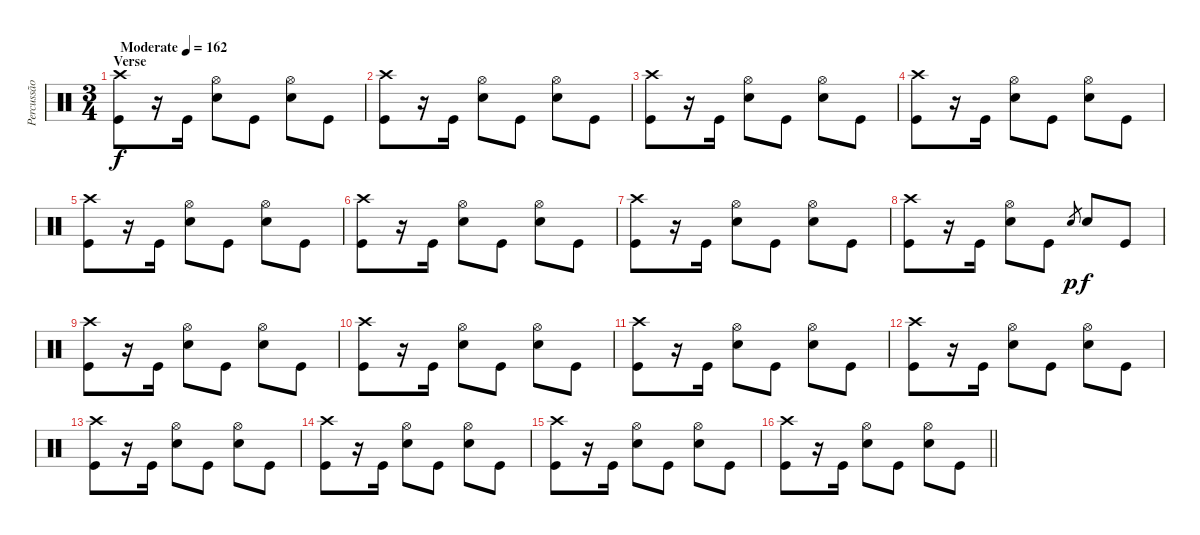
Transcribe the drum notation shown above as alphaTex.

\track ("Percussão" "Percussão") {instrument percussion}
\staff {score}
\articulation defaults
\ts (3 4)
\section ("" "Verse")
\tempo (162 "Moderate")
\clef neutral
\ks c
("Crash high (hit)" "Kick (hit)").8{dy f} r.16 "Kick (hit)".16 ("Hi-Hat (open)" "Snare (hit) 2").8 "Kick (hit)".8 ("Hi-Hat (open)" "Snare (hit) 2").8 "Kick (hit)".8 |
("Crash high (hit)" "Kick (hit)").8 r.16 "Kick (hit)".16 ("Hi-Hat (open)" "Snare (hit) 2").8 "Kick (hit)".8 ("Hi-Hat (open)" "Snare (hit) 2").8 "Kick (hit)".8 |
("Crash high (hit)" "Kick (hit)").8 r.16 "Kick (hit)".16 ("Hi-Hat (open)" "Snare (hit) 2").8 "Kick (hit)".8 ("Hi-Hat (open)" "Snare (hit) 2").8 "Kick (hit)".8 |
("Crash high (hit)" "Kick (hit)").8 r.16 "Kick (hit)".16 ("Hi-Hat (open)" "Snare (hit) 2").8 "Kick (hit)".8 ("Hi-Hat (open)" "Snare (hit) 2").8 "Kick (hit)".8 |
("Crash high (hit)" "Kick (hit)").8 r.16 "Kick (hit)".16 ("Hi-Hat (open)" "Snare (hit) 2").8 "Kick (hit)".8 ("Hi-Hat (open)" "Snare (hit) 2").8 "Kick (hit)".8 |
("Crash high (hit)" "Kick (hit)").8 r.16 "Kick (hit)".16 ("Hi-Hat (open)" "Snare (hit) 2").8 "Kick (hit)".8 ("Hi-Hat (open)" "Snare (hit) 2").8 "Kick (hit)".8 |
("Crash high (hit)" "Kick (hit)").8 r.16 "Kick (hit)".16 ("Hi-Hat (open)" "Snare (hit) 2").8 "Kick (hit)".8 ("Hi-Hat (open)" "Snare (hit) 2").8 "Kick (hit)".8 |
("Crash high (hit)" "Kick (hit)").8 r.16 "Kick (hit)".16 ("Hi-Hat (open)" "Snare (hit) 2").8 "Kick (hit)".8 "Snare (hit) 2".8{gr dy p} "Snare (hit) 2".8{dy f} "Kick (hit)".8 |
("Crash high (hit)" "Kick (hit)").8 r.16 "Kick (hit)".16 ("Hi-Hat (open)" "Snare (hit) 2").8 "Kick (hit)".8 ("Hi-Hat (open)" "Snare (hit) 2").8 "Kick (hit)".8 |
("Crash high (hit)" "Kick (hit)").8 r.16 "Kick (hit)".16 ("Hi-Hat (open)" "Snare (hit) 2").8 "Kick (hit)".8 ("Hi-Hat (open)" "Snare (hit) 2").8 "Kick (hit)".8 |
("Crash high (hit)" "Kick (hit)").8 r.16 "Kick (hit)".16 ("Hi-Hat (open)" "Snare (hit) 2").8 "Kick (hit)".8 ("Hi-Hat (open)" "Snare (hit) 2").8 "Kick (hit)".8 |
("Crash high (hit)" "Kick (hit)").8 r.16 "Kick (hit)".16 ("Hi-Hat (open)" "Snare (hit) 2").8 "Kick (hit)".8 ("Hi-Hat (open)" "Snare (hit) 2").8 "Kick (hit)".8 |
("Crash high (hit)" "Kick (hit)").8 r.16 "Kick (hit)".16 ("Hi-Hat (open)" "Snare (hit) 2").8 "Kick (hit)".8 ("Hi-Hat (open)" "Snare (hit) 2").8 "Kick (hit)".8 |
("Crash high (hit)" "Kick (hit)").8 r.16 "Kick (hit)".16 ("Hi-Hat (open)" "Snare (hit) 2").8 "Kick (hit)".8 ("Hi-Hat (open)" "Snare (hit) 2").8 "Kick (hit)".8 |
("Crash high (hit)" "Kick (hit)").8 r.16 "Kick (hit)".16 ("Hi-Hat (open)" "Snare (hit) 2").8 "Kick (hit)".8 ("Hi-Hat (open)" "Snare (hit) 2").8 "Kick (hit)".8 |
\barLineRight lightlight
("Crash high (hit)" "Kick (hit)").8 r.16 "Kick (hit)".16 ("Hi-Hat (open)" "Snare (hit) 2").8 "Kick (hit)".8 ("Hi-Hat (open)" "Snare (hit) 2").8 "Kick (hit)".8
